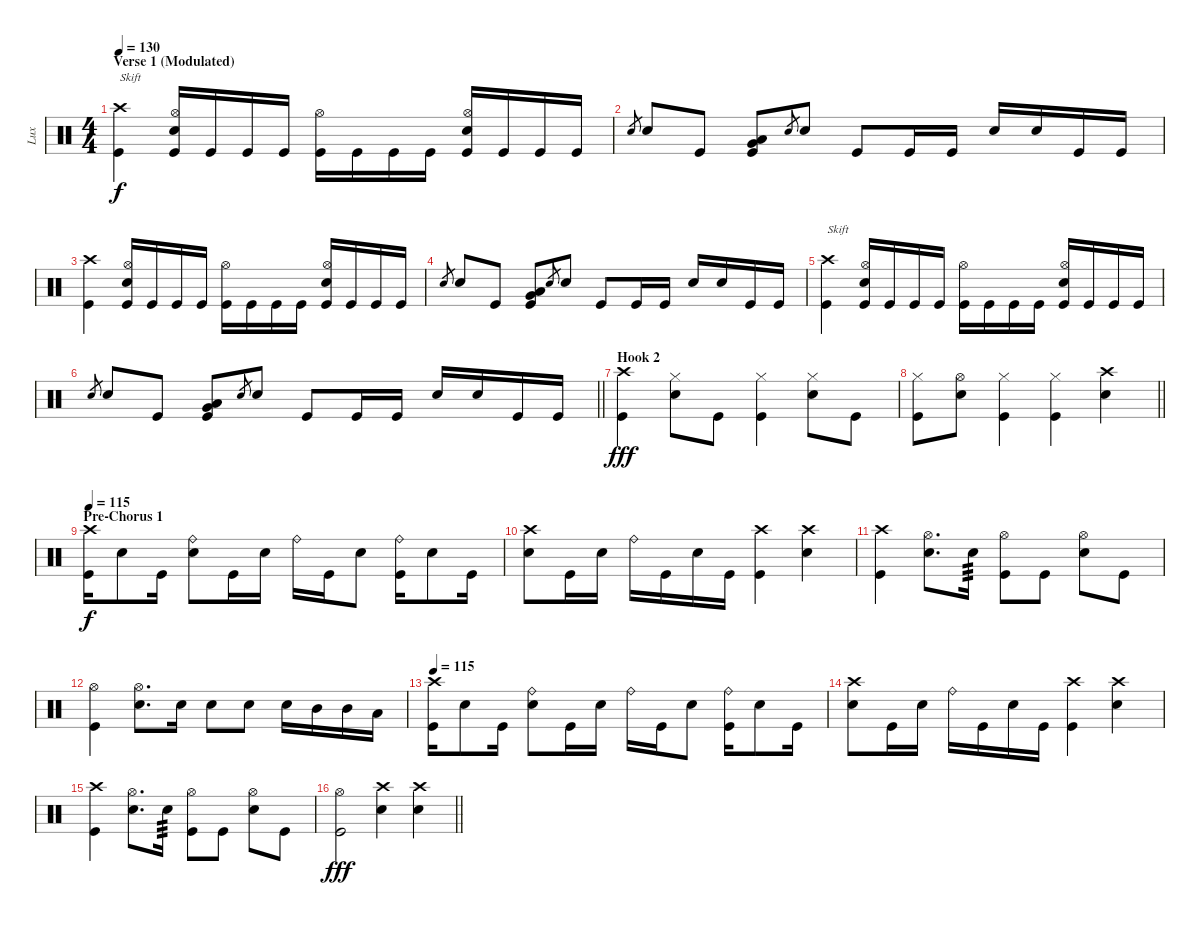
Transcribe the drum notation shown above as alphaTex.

\track ("Lux" "Lux") {instrument percussion}
\staff {score}
\articulation defaults
\ts (4 4)
\section ("" "Verse 1 (Modulated)")
\tempo 130
\clef neutral
\ks c
("Crash high (hit)" "Kick (hit)").4{txt "Skift" dy f} ("Hi-Hat (open)" "Snare (hit) 2" "Kick (hit)").16 "Kick (hit)".16 "Kick (hit)".16 "Kick (hit)".16 ("Hi-Hat (open)" "Kick (hit)").16 "Kick (hit)".16 "Kick (hit)".16 "Kick (hit)".16 ("Hi-Hat (open)" "Snare (hit) 2" "Kick (hit)").16 "Kick (hit)".16 "Kick (hit)".16 "Kick (hit)".16 |
"Snare (hit) 2".8{gr} "Snare (hit) 2".8 "Kick (hit)".8 ("Very Low Tom (hit)" "Low Tom (hit)" "Kick (hit)").8 "Snare (hit) 2".8{gr} "Snare (hit) 2".8 "Kick (hit)".8 "Kick (hit)".16 "Kick (hit)".16 "Snare (hit) 2".16 "Snare (hit) 2".16 "Kick (hit)".16 "Kick (hit)".16 |
("Crash high (hit)" "Kick (hit)").4 ("Hi-Hat (open)" "Snare (hit) 2" "Kick (hit)").16 "Kick (hit)".16 "Kick (hit)".16 "Kick (hit)".16 ("Hi-Hat (open)" "Kick (hit)").16 "Kick (hit)".16 "Kick (hit)".16 "Kick (hit)".16 ("Hi-Hat (open)" "Snare (hit) 2" "Kick (hit)").16 "Kick (hit)".16 "Kick (hit)".16 "Kick (hit)".16 |
"Snare (hit) 2".8{gr} "Snare (hit) 2".8 "Kick (hit)".8 ("Very Low Tom (hit)" "Low Tom (hit)" "Kick (hit)").8 "Snare (hit) 2".8{gr} "Snare (hit) 2".8 "Kick (hit)".8 "Kick (hit)".16 "Kick (hit)".16 "Snare (hit) 2".16 "Snare (hit) 2".16 "Kick (hit)".16 "Kick (hit)".16 |
("Crash high (hit)" "Kick (hit)").4{txt "Skift"} ("Hi-Hat (open)" "Snare (hit) 2" "Kick (hit)").16 "Kick (hit)".16 "Kick (hit)".16 "Kick (hit)".16 ("Hi-Hat (open)" "Kick (hit)").16 "Kick (hit)".16 "Kick (hit)".16 "Kick (hit)".16 ("Hi-Hat (open)" "Snare (hit) 2" "Kick (hit)").16 "Kick (hit)".16 "Kick (hit)".16 "Kick (hit)".16 |
\barLineRight lightlight "Snare (hit) 2".8{gr} "Snare (hit) 2".8 "Kick (hit)".8
("Very Low Tom (hit)" "Low Tom (hit)" "Kick (hit)").8 "Snare (hit) 2".8{gr} "Snare (hit) 2".8 "Kick (hit)".8 "Kick (hit)".16 "Kick (hit)".16 "Snare (hit) 2".16 "Snare (hit) 2".16 "Kick (hit)".16 "Kick (hit)".16 |
\section ("" "Hook 2")
("Crash high (hit)" "Kick (hit)").4{dy fff} ("Hi-Hat (closed)" "Snare (hit) 2").8 "Kick (hit)".8 ("Hi-Hat (closed)" "Kick (hit)").4 ("Hi-Hat (closed)" "Snare (hit) 2").8 "Kick (hit)".8 |
\barLineRight lightlight
("Hi-Hat (closed)" "Kick (hit)").8 ("Hi-Hat (open)" "Snare (hit) 2").8 ("Hi-Hat (closed)" "Kick (hit)").4 ("Hi-Hat (closed)" "Kick (hit)").4 ("Crash high (hit)" "Snare (hit) 2").4 |
\section ("" "Pre-Chorus 1")
\tempo 115
("Crash high (hit)" "Kick (hit)").16{dy f} "Snare (hit) 2".8 "Kick (hit)".16 ("Ride (bell)" "Snare (hit) 2").8 "Kick (hit)".16 "Snare (hit) 2".16 "Ride (bell)".16 "Kick (hit)".16 "Snare (hit) 2".8 ("Ride (bell)" "Kick (hit)").16 "Snare (hit) 2".8 "Kick (hit)".16 |
("Crash high (hit)" "Snare (hit) 2").8 "Kick (hit)".16 "Snare (hit) 2".16 "Ride (bell)".16 "Kick (hit)".16 "Snare (hit) 2".16 "Kick (hit)".16 ("Crash high (hit)" "Kick (hit)").4 ("Crash high (hit)" "Snare (hit) 2").4 |
("Crash high (hit)" "Kick (hit)").4 ("Hi-Hat (open)" "Snare (hit) 2").8{d} "Snare (hit) 2".16{tp 3} ("Hi-Hat (open)" "Kick (hit)").8 "Kick (hit)".8 ("Hi-Hat (open)" "Snare (hit) 2").8 "Kick (hit)".8 |
("Hi-Hat (open)" "Kick (hit)").4 ("Hi-Hat (open)" "Snare (hit) 2").8{d} "Snare (hit) 2".16 "Snare (hit) 2".8 "Snare (hit) 2".8 "Snare (hit) 2".16 "Mid Tom (hit)".16 "Mid Tom (hit)".16 "Low Tom (hit)".16 |
\tempo 115
("Crash high (hit)" "Kick (hit)").16 "Snare (hit) 2".8 "Kick (hit)".16 ("Ride (bell)" "Snare (hit) 2").8 "Kick (hit)".16 "Snare (hit) 2".16 "Ride (bell)".16 "Kick (hit)".16 "Snare (hit) 2".8 ("Ride (bell)" "Kick (hit)").16 "Snare (hit) 2".8 "Kick (hit)".16 |
("Crash high (hit)" "Snare (hit) 2").8 "Kick (hit)".16 "Snare (hit) 2".16 "Ride (bell)".16 "Kick (hit)".16 "Snare (hit) 2".16 "Kick (hit)".16 ("Crash high (hit)" "Kick (hit)").4 ("Crash high (hit)" "Snare (hit) 2").4 |
("Crash high (hit)" "Kick (hit)").4 ("Hi-Hat (open)" "Snare (hit) 2").8{d} "Snare (hit) 2".16{tp 3} ("Hi-Hat (open)" "Kick (hit)").8 "Kick (hit)".8 ("Hi-Hat (open)" "Snare (hit) 2").8 "Kick (hit)".8 |
\barLineRight lightlight
("Hi-Hat (open)" "Kick (hit)").2{dy fff} ("Crash high (hit)" "Snare (hit) 2").4 ("Crash high (hit)" "Snare (hit) 2").4
